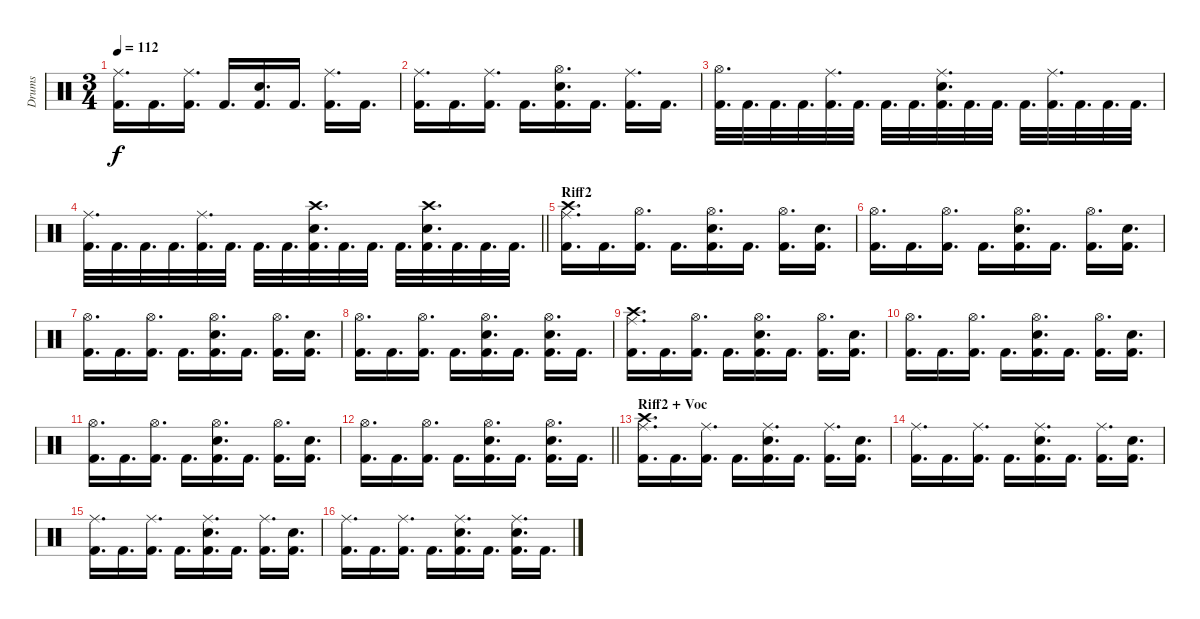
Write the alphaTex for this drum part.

\track ("Drums" "Drums") {instrument percussion}
\staff {score}
\articulation defaults
\ts (3 4)
\tempo 112
\clef neutral
\ks c
("Ride (middle)" "Kick (hit) 2").16{d dy f} "Kick (hit) 2".16{d} ("Ride (middle)" "Kick (hit) 2").16{d} "Kick (hit) 2".16{d} ("Kick (hit) 2" "Snare (hit) 2").16{d} "Kick (hit) 2".16{d} ("Ride (middle)" "Kick (hit) 2").16{d} "Kick (hit) 2".16{d} |
("Ride (middle)" "Kick (hit) 2").16{d} "Kick (hit) 2".16{d} ("Ride (middle)" "Kick (hit) 2").16{d} "Kick (hit) 2".16{d} ("Hi-Hat (open)" "Kick (hit) 2" "Snare (hit) 2").16{d} "Kick (hit) 2".16{d} ("Ride (middle)" "Kick (hit) 2").16{d} "Kick (hit) 2".16{d} |
("Hi-Hat (open)" "Kick (hit) 2").32{d} "Kick (hit) 2".32{d} "Kick (hit) 2".32{d} "Kick (hit) 2".32{d} ("Ride (middle)" "Kick (hit) 2").32{d} "Kick (hit) 2".32{d} "Kick (hit) 2".32{d} "Kick (hit) 2".32{d} ("Ride (middle)" "Kick (hit) 2" "Snare (hit) 2").32{d} "Kick (hit) 2".32{d} "Kick (hit) 2".32{d} "Kick (hit) 2".32{d} ("Ride (middle)" "Kick (hit) 2").32{d} "Kick (hit) 2".32{d} "Kick (hit) 2".32{d} "Kick (hit) 2".32{d} |
\barLineRight lightlight
("Ride (middle)" "Kick (hit) 2").32{d} "Kick (hit) 2".32{d} "Kick (hit) 2".32{d} "Kick (hit) 2".32{d} ("Ride (middle)" "Kick (hit) 2").32{d} "Kick (hit) 2".32{d} "Kick (hit) 2".32{d} "Kick (hit) 2".32{d} ("Crash high (hit)" "Kick (hit) 2" "Snare (hit) 2").32{d} "Kick (hit) 2".32{d} "Kick (hit) 2".32{d} "Kick (hit) 2".32{d} ("Crash high (hit)" "Kick (hit) 2" "Snare (hit) 2").32{d} "Kick (hit) 2".32{d} "Kick (hit) 2".32{d} "Kick (hit) 2".32{d} |
\section ("" "Riff2")
("Crash high (hit)" "Ride (middle)" "Kick (hit) 2").16{d} "Kick (hit) 2".16{d} ("Hi-Hat (open)" "Kick (hit) 2").16{d} "Kick (hit) 2".16{d} ("Hi-Hat (open)" "Kick (hit) 2" "Snare (hit) 2").16{d} "Kick (hit) 2".16{d} ("Hi-Hat (open)" "Kick (hit) 2").16{d} ("Kick (hit) 2" "Snare (hit) 2").16{d} |
("Hi-Hat (open)" "Kick (hit) 2").16{d} "Kick (hit) 2".16{d} ("Hi-Hat (open)" "Kick (hit) 2").16{d} "Kick (hit) 2".16{d} ("Hi-Hat (open)" "Kick (hit) 2" "Snare (hit) 2").16{d} "Kick (hit) 2".16{d} ("Hi-Hat (open)" "Kick (hit) 2").16{d} ("Kick (hit) 2" "Snare (hit) 2").16{d} |
("Hi-Hat (open)" "Kick (hit) 2").16{d} "Kick (hit) 2".16{d} ("Hi-Hat (open)" "Kick (hit) 2").16{d} "Kick (hit) 2".16{d} ("Hi-Hat (open)" "Kick (hit) 2" "Snare (hit) 2").16{d} "Kick (hit) 2".16{d} ("Hi-Hat (open)" "Kick (hit) 2").16{d} ("Kick (hit) 2" "Snare (hit) 2").16{d} |
("Hi-Hat (open)" "Kick (hit) 2").16{d} "Kick (hit) 2".16{d} ("Hi-Hat (open)" "Kick (hit) 2").16{d} "Kick (hit) 2".16{d} ("Hi-Hat (open)" "Kick (hit) 2" "Snare (hit) 2").16{d} "Kick (hit) 2".16{d} ("Hi-Hat (open)" "Kick (hit) 2" "Snare (hit) 2").16{d} "Kick (hit) 2".16{d} |
("Crash high (hit)" "Ride (middle)" "Kick (hit) 2").16{d} "Kick (hit) 2".16{d} ("Hi-Hat (open)" "Kick (hit) 2").16{d} "Kick (hit) 2".16{d} ("Hi-Hat (open)" "Kick (hit) 2" "Snare (hit) 2").16{d} "Kick (hit) 2".16{d} ("Hi-Hat (open)" "Kick (hit) 2").16{d} ("Kick (hit) 2" "Snare (hit) 2").16{d} |
("Hi-Hat (open)" "Kick (hit) 2").16{d} "Kick (hit) 2".16{d} ("Hi-Hat (open)" "Kick (hit) 2").16{d} "Kick (hit) 2".16{d} ("Hi-Hat (open)" "Kick (hit) 2" "Snare (hit) 2").16{d} "Kick (hit) 2".16{d} ("Hi-Hat (open)" "Kick (hit) 2").16{d} ("Kick (hit) 2" "Snare (hit) 2").16{d} |
("Hi-Hat (open)" "Kick (hit) 2").16{d} "Kick (hit) 2".16{d} ("Hi-Hat (open)" "Kick (hit) 2").16{d} "Kick (hit) 2".16{d} ("Hi-Hat (open)" "Kick (hit) 2" "Snare (hit) 2").16{d} "Kick (hit) 2".16{d} ("Hi-Hat (open)" "Kick (hit) 2").16{d} ("Kick (hit) 2" "Snare (hit) 2").16{d} |
\barLineRight lightlight
("Hi-Hat (open)" "Kick (hit) 2").16{d} "Kick (hit) 2".16{d} ("Hi-Hat (open)" "Kick (hit) 2").16{d} "Kick (hit) 2".16{d} ("Hi-Hat (open)" "Kick (hit) 2" "Snare (hit) 2").16{d} "Kick (hit) 2".16{d} ("Hi-Hat (open)" "Kick (hit) 2" "Snare (hit) 2").16{d} "Kick (hit) 2".16{d} |
\section ("" "Riff2 + Voc")
("Crash high (hit)" "Ride (middle)" "Kick (hit) 2").16{d} "Kick (hit) 2".16{d} ("Ride (middle)" "Kick (hit) 2").16{d} "Kick (hit) 2".16{d} ("Ride (middle)" "Kick (hit) 2" "Snare (hit) 2").16{d} "Kick (hit) 2".16{d} ("Ride (middle)" "Kick (hit) 2").16{d} ("Kick (hit) 2" "Snare (hit) 2").16{d} |
("Ride (middle)" "Kick (hit) 2").16{d} "Kick (hit) 2".16{d} ("Ride (middle)" "Kick (hit) 2").16{d} "Kick (hit) 2".16{d} ("Ride (middle)" "Kick (hit) 2" "Snare (hit) 2").16{d} "Kick (hit) 2".16{d} ("Ride (middle)" "Kick (hit) 2").16{d} ("Kick (hit) 2" "Snare (hit) 2").16{d} |
("Ride (middle)" "Kick (hit) 2").16{d} "Kick (hit) 2".16{d} ("Ride (middle)" "Kick (hit) 2").16{d} "Kick (hit) 2".16{d} ("Ride (middle)" "Kick (hit) 2" "Snare (hit) 2").16{d} "Kick (hit) 2".16{d} ("Ride (middle)" "Kick (hit) 2").16{d} ("Kick (hit) 2" "Snare (hit) 2").16{d} |
("Ride (middle)" "Kick (hit) 2").16{d} "Kick (hit) 2".16{d} ("Ride (middle)" "Kick (hit) 2").16{d} "Kick (hit) 2".16{d} ("Ride (middle)" "Kick (hit) 2" "Snare (hit) 2").16{d} "Kick (hit) 2".16{d} ("Ride (middle)" "Kick (hit) 2" "Snare (hit) 2").16{d} "Kick (hit) 2".16{d}
